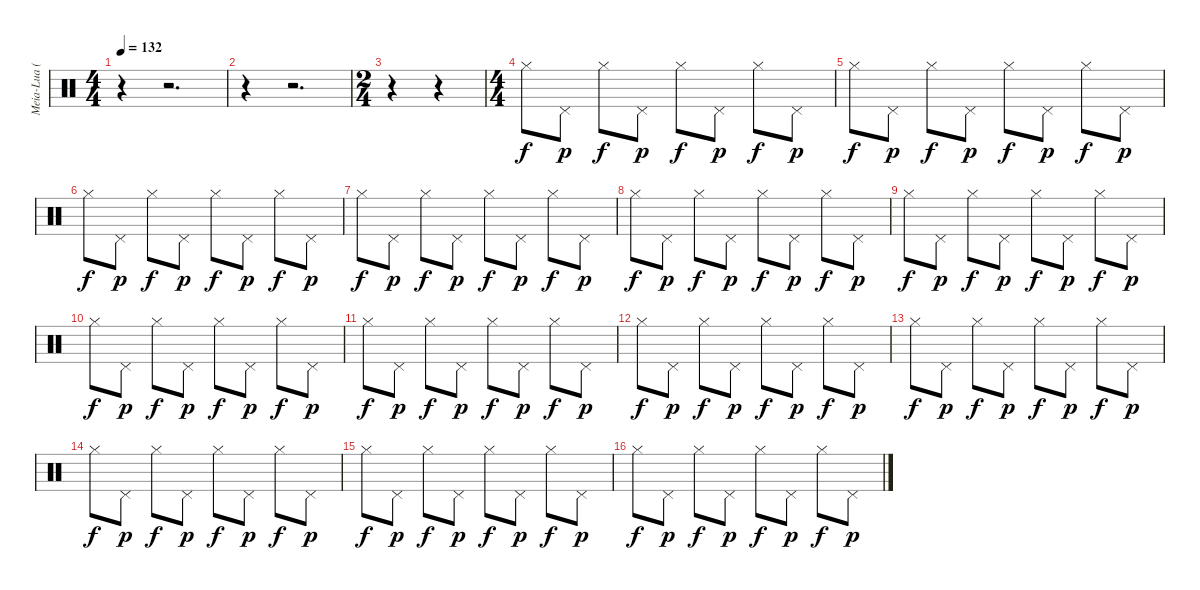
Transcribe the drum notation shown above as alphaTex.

\track ("Meia-Lua (hehe)" "Meia-Lua (") {instrument percussion}
\staff {score}
\articulation defaults
\ts (4 4)
\tempo 132
\clef neutral
\ks c
r.4{dy p} r.2{d} |
r.4 r.2{d} |
\ts (2 4)
r.4 r.4 |
\ts (4 4)
"Hi-Hat (closed)".8{dy f} "Pedal Hi-Hat (hit)".8{dy p} "Hi-Hat (closed)".8{dy f} "Pedal Hi-Hat (hit)".8{dy p} "Hi-Hat (closed)".8{dy f} "Pedal Hi-Hat (hit)".8{dy p} "Hi-Hat (closed)".8{dy f} "Pedal Hi-Hat (hit)".8{dy p} |
"Hi-Hat (closed)".8{dy f} "Pedal Hi-Hat (hit)".8{dy p} "Hi-Hat (closed)".8{dy f} "Pedal Hi-Hat (hit)".8{dy p} "Hi-Hat (closed)".8{dy f} "Pedal Hi-Hat (hit)".8{dy p} "Hi-Hat (closed)".8{dy f} "Pedal Hi-Hat (hit)".8{dy p} |
"Hi-Hat (closed)".8{dy f} "Pedal Hi-Hat (hit)".8{dy p} "Hi-Hat (closed)".8{dy f} "Pedal Hi-Hat (hit)".8{dy p} "Hi-Hat (closed)".8{dy f} "Pedal Hi-Hat (hit)".8{dy p} "Hi-Hat (closed)".8{dy f} "Pedal Hi-Hat (hit)".8{dy p} |
"Hi-Hat (closed)".8{dy f} "Pedal Hi-Hat (hit)".8{dy p} "Hi-Hat (closed)".8{dy f} "Pedal Hi-Hat (hit)".8{dy p} "Hi-Hat (closed)".8{dy f} "Pedal Hi-Hat (hit)".8{dy p} "Hi-Hat (closed)".8{dy f} "Pedal Hi-Hat (hit)".8{dy p} |
"Hi-Hat (closed)".8{dy f} "Pedal Hi-Hat (hit)".8{dy p} "Hi-Hat (closed)".8{dy f} "Pedal Hi-Hat (hit)".8{dy p} "Hi-Hat (closed)".8{dy f} "Pedal Hi-Hat (hit)".8{dy p} "Hi-Hat (closed)".8{dy f} "Pedal Hi-Hat (hit)".8{dy p} |
"Hi-Hat (closed)".8{dy f} "Pedal Hi-Hat (hit)".8{dy p} "Hi-Hat (closed)".8{dy f} "Pedal Hi-Hat (hit)".8{dy p} "Hi-Hat (closed)".8{dy f} "Pedal Hi-Hat (hit)".8{dy p} "Hi-Hat (closed)".8{dy f} "Pedal Hi-Hat (hit)".8{dy p} |
"Hi-Hat (closed)".8{dy f} "Pedal Hi-Hat (hit)".8{dy p} "Hi-Hat (closed)".8{dy f} "Pedal Hi-Hat (hit)".8{dy p} "Hi-Hat (closed)".8{dy f} "Pedal Hi-Hat (hit)".8{dy p} "Hi-Hat (closed)".8{dy f} "Pedal Hi-Hat (hit)".8{dy p} |
"Hi-Hat (closed)".8{dy f} "Pedal Hi-Hat (hit)".8{dy p} "Hi-Hat (closed)".8{dy f} "Pedal Hi-Hat (hit)".8{dy p} "Hi-Hat (closed)".8{dy f} "Pedal Hi-Hat (hit)".8{dy p} "Hi-Hat (closed)".8{dy f} "Pedal Hi-Hat (hit)".8{dy p} |
"Hi-Hat (closed)".8{dy f} "Pedal Hi-Hat (hit)".8{dy p} "Hi-Hat (closed)".8{dy f} "Pedal Hi-Hat (hit)".8{dy p} "Hi-Hat (closed)".8{dy f} "Pedal Hi-Hat (hit)".8{dy p} "Hi-Hat (closed)".8{dy f} "Pedal Hi-Hat (hit)".8{dy p} |
"Hi-Hat (closed)".8{dy f} "Pedal Hi-Hat (hit)".8{dy p} "Hi-Hat (closed)".8{dy f} "Pedal Hi-Hat (hit)".8{dy p} "Hi-Hat (closed)".8{dy f} "Pedal Hi-Hat (hit)".8{dy p} "Hi-Hat (closed)".8{dy f} "Pedal Hi-Hat (hit)".8{dy p} |
"Hi-Hat (closed)".8{dy f} "Pedal Hi-Hat (hit)".8{dy p} "Hi-Hat (closed)".8{dy f} "Pedal Hi-Hat (hit)".8{dy p} "Hi-Hat (closed)".8{dy f} "Pedal Hi-Hat (hit)".8{dy p} "Hi-Hat (closed)".8{dy f} "Pedal Hi-Hat (hit)".8{dy p} |
"Hi-Hat (closed)".8{dy f} "Pedal Hi-Hat (hit)".8{dy p} "Hi-Hat (closed)".8{dy f} "Pedal Hi-Hat (hit)".8{dy p} "Hi-Hat (closed)".8{dy f} "Pedal Hi-Hat (hit)".8{dy p} "Hi-Hat (closed)".8{dy f} "Pedal Hi-Hat (hit)".8{dy p} |
"Hi-Hat (closed)".8{dy f} "Pedal Hi-Hat (hit)".8{dy p} "Hi-Hat (closed)".8{dy f} "Pedal Hi-Hat (hit)".8{dy p} "Hi-Hat (closed)".8{dy f} "Pedal Hi-Hat (hit)".8{dy p} "Hi-Hat (closed)".8{dy f} "Pedal Hi-Hat (hit)".8{dy p}
